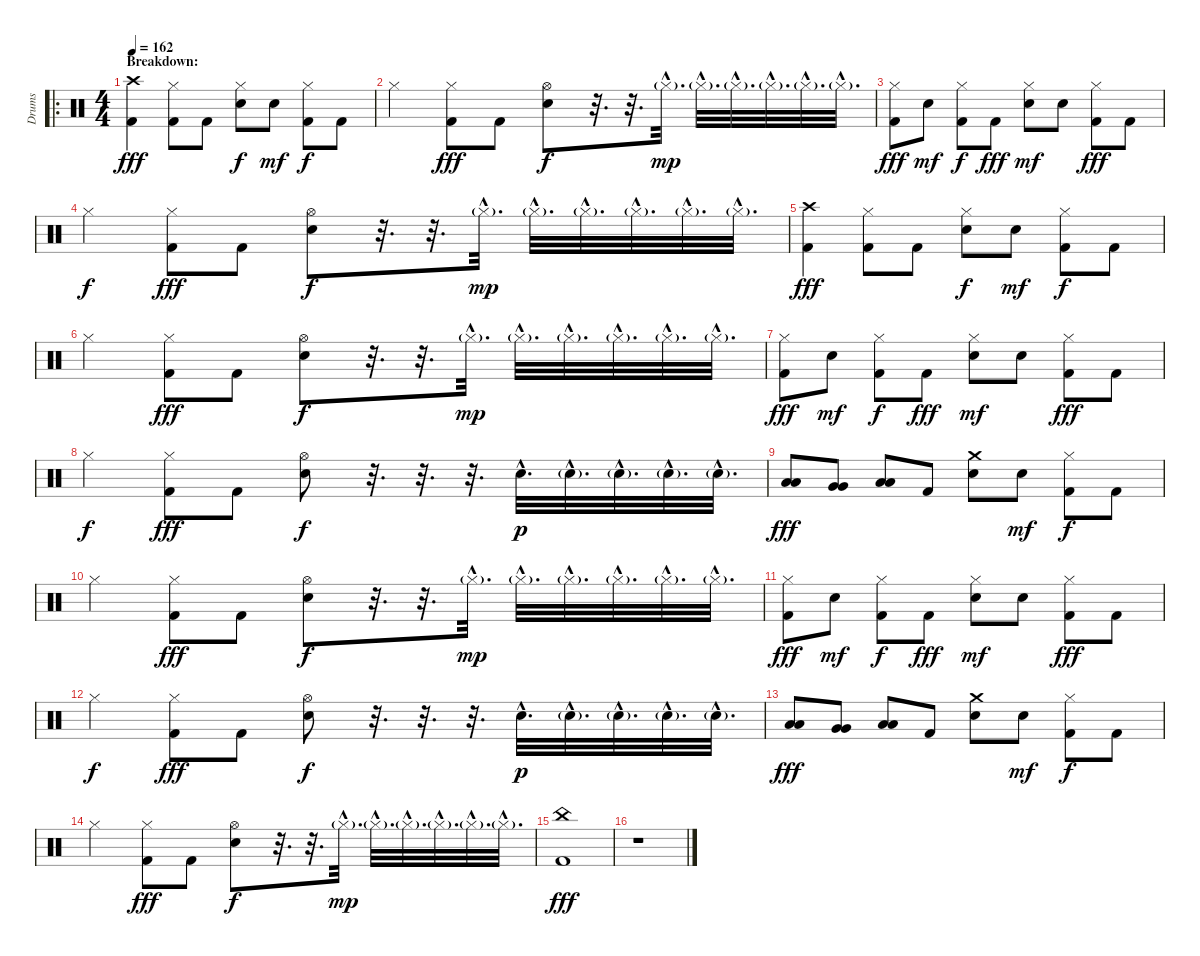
\track ("Drums" "Drums") {instrument percussion}
\staff {score}
\articulation defaults
\ro
\ts (4 4)
\section ("" "Breakdown:")
\tempo 162
\clef neutral
\ks c
("Crash high (hit)" "Kick (hit) 2").4{dy fff} ("Hi-Hat (closed)" "Kick (hit) 2").8 "Kick (hit) 2".8 ("Hi-Hat (closed)" "Snare (hit) 2").8{dy f} "Snare (hit) 2".8{dy mf} ("Hi-Hat (closed)" "Kick (hit) 2").8{dy f} "Kick (hit) 2".8 |
"Hi-Hat (closed)".4 ("Hi-Hat (closed)" "Kick (hit) 2").8{dy fff} "Kick (hit) 2".8 ("Hi-Hat (open)" "Snare (hit) 2").8{dy f} r.32{d} r.32{d} "Hi-Hat (closed)"{g hac}.32{d dy mp} "Hi-Hat (closed)"{g hac}.32{d} "Hi-Hat (closed)"{g hac}.32{d} "Hi-Hat (closed)"{g hac}.32{d} "Hi-Hat (closed)"{g hac}.32{d} "Hi-Hat (closed)"{g hac}.32{d} |
("Hi-Hat (closed)" "Kick (hit) 2").8{dy fff} "Snare (hit) 2".8{dy mf} ("Hi-Hat (closed)" "Kick (hit) 2").8{dy f} "Kick (hit) 2".8{dy fff} ("Hi-Hat (closed)" "Snare (hit) 2").8{dy mf} "Snare (hit) 2".8 ("Hi-Hat (closed)" "Kick (hit) 2").8{dy fff} "Kick (hit) 2".8 |
"Hi-Hat (closed)".4{dy f} ("Hi-Hat (closed)" "Kick (hit) 2").8{dy fff} "Kick (hit) 2".8 ("Hi-Hat (open)" "Snare (hit) 2").8{dy f} r.32{d} r.32{d} "Hi-Hat (closed)"{g hac}.32{d dy mp} "Hi-Hat (closed)"{g hac}.32{d} "Hi-Hat (closed)"{g hac}.32{d} "Hi-Hat (closed)"{g hac}.32{d} "Hi-Hat (closed)"{g hac}.32{d} "Hi-Hat (closed)"{g hac}.32{d} |
("Crash high (hit)" "Kick (hit) 2").4{dy fff} ("Hi-Hat (closed)" "Kick (hit) 2").8 "Kick (hit) 2".8 ("Hi-Hat (closed)" "Snare (hit) 2").8{dy f} "Snare (hit) 2".8{dy mf} ("Hi-Hat (closed)" "Kick (hit) 2").8{dy f} "Kick (hit) 2".8 |
"Hi-Hat (closed)".4 ("Hi-Hat (closed)" "Kick (hit) 2").8{dy fff} "Kick (hit) 2".8 ("Hi-Hat (open)" "Snare (hit) 2").8{dy f} r.32{d} r.32{d} "Hi-Hat (closed)"{g hac}.32{d dy mp} "Hi-Hat (closed)"{g hac}.32{d} "Hi-Hat (closed)"{g hac}.32{d} "Hi-Hat (closed)"{g hac}.32{d} "Hi-Hat (closed)"{g hac}.32{d} "Hi-Hat (closed)"{g hac}.32{d} |
("Hi-Hat (closed)" "Kick (hit) 2").8{dy fff} "Snare (hit) 2".8{dy mf} ("Hi-Hat (closed)" "Kick (hit) 2").8{dy f} "Kick (hit) 2".8{dy fff} ("Hi-Hat (closed)" "Snare (hit) 2").8{dy mf} "Snare (hit) 2".8 ("Hi-Hat (closed)" "Kick (hit) 2").8{dy fff} "Kick (hit) 2".8 |
"Hi-Hat (closed)".4{dy f} ("Hi-Hat (closed)" "Kick (hit) 2").8{dy fff} "Kick (hit) 2".8 ("Hi-Hat (open)" "Snare (hit) 2").8{dy f} r.32{d} r.32{d} r.32{d} "Snare (hit) 2"{hac}.32{d dy p} "Snare (hit) 2"{g hac}.32{d} "Snare (hit) 2"{g hac}.32{d} "Snare (hit) 2"{g hac}.32{d} "Snare (hit) 2"{g hac}.32{d} |
("Low Tom (hit)" "Low Tom (hit)").8{dy fff} ("Very Low Tom (hit)" "Very Low Tom (hit)").8 ("Low Floor Tom (hit)" "Low Floor Tom (hit)").8 "Kick (hit) 2".8 ("Crash medium (hit)" "Snare (hit) 2").8 "Snare (hit) 2".8{dy mf} ("Hi-Hat (closed)" "Kick (hit) 2").8{dy f} "Kick (hit) 2".8 |
"Hi-Hat (closed)".4 ("Hi-Hat (closed)" "Kick (hit) 2").8{dy fff} "Kick (hit) 2".8 ("Hi-Hat (open)" "Snare (hit) 2").8{dy f} r.32{d} r.32{d} "Hi-Hat (closed)"{g hac}.32{d dy mp} "Hi-Hat (closed)"{g hac}.32{d} "Hi-Hat (closed)"{g hac}.32{d} "Hi-Hat (closed)"{g hac}.32{d} "Hi-Hat (closed)"{g hac}.32{d} "Hi-Hat (closed)"{g hac}.32{d} |
("Hi-Hat (closed)" "Kick (hit) 2").8{dy fff} "Snare (hit) 2".8{dy mf} ("Hi-Hat (closed)" "Kick (hit) 2").8{dy f} "Kick (hit) 2".8{dy fff} ("Hi-Hat (closed)" "Snare (hit) 2").8{dy mf} "Snare (hit) 2".8 ("Hi-Hat (closed)" "Kick (hit) 2").8{dy fff} "Kick (hit) 2".8 |
"Hi-Hat (closed)".4{dy f} ("Hi-Hat (closed)" "Kick (hit) 2").8{dy fff} "Kick (hit) 2".8 ("Hi-Hat (open)" "Snare (hit) 2").8{dy f} r.32{d} r.32{d} r.32{d} "Snare (hit) 2"{hac}.32{d dy p} "Snare (hit) 2"{g hac}.32{d} "Snare (hit) 2"{g hac}.32{d} "Snare (hit) 2"{g hac}.32{d} "Snare (hit) 2"{g hac}.32{d} |
("Low Tom (hit)" "Low Tom (hit)").8{dy fff} ("Very Low Tom (hit)" "Very Low Tom (hit)").8 ("Low Floor Tom (hit)" "Low Floor Tom (hit)").8 "Kick (hit) 2".8 ("Crash medium (hit)" "Snare (hit) 2").8 "Snare (hit) 2".8{dy mf} ("Hi-Hat (closed)" "Kick (hit) 2").8{dy f} "Kick (hit) 2".8 |
"Hi-Hat (closed)".4 ("Hi-Hat (closed)" "Kick (hit) 2").8{dy fff} "Kick (hit) 2".8 ("Hi-Hat (open)" "Snare (hit) 2").8{dy f} r.32{d} r.32{d} "Hi-Hat (closed)"{g hac}.32{d dy mp} "Hi-Hat (closed)"{g hac}.32{d} "Hi-Hat (closed)"{g hac}.32{d} "Hi-Hat (closed)"{g hac}.32{d} "Hi-Hat (closed)"{g hac}.32{d} "Hi-Hat (closed)"{g hac}.32{d} |
("China (hit)" "Kick (hit) 2").1{dy fff} |
r.1
